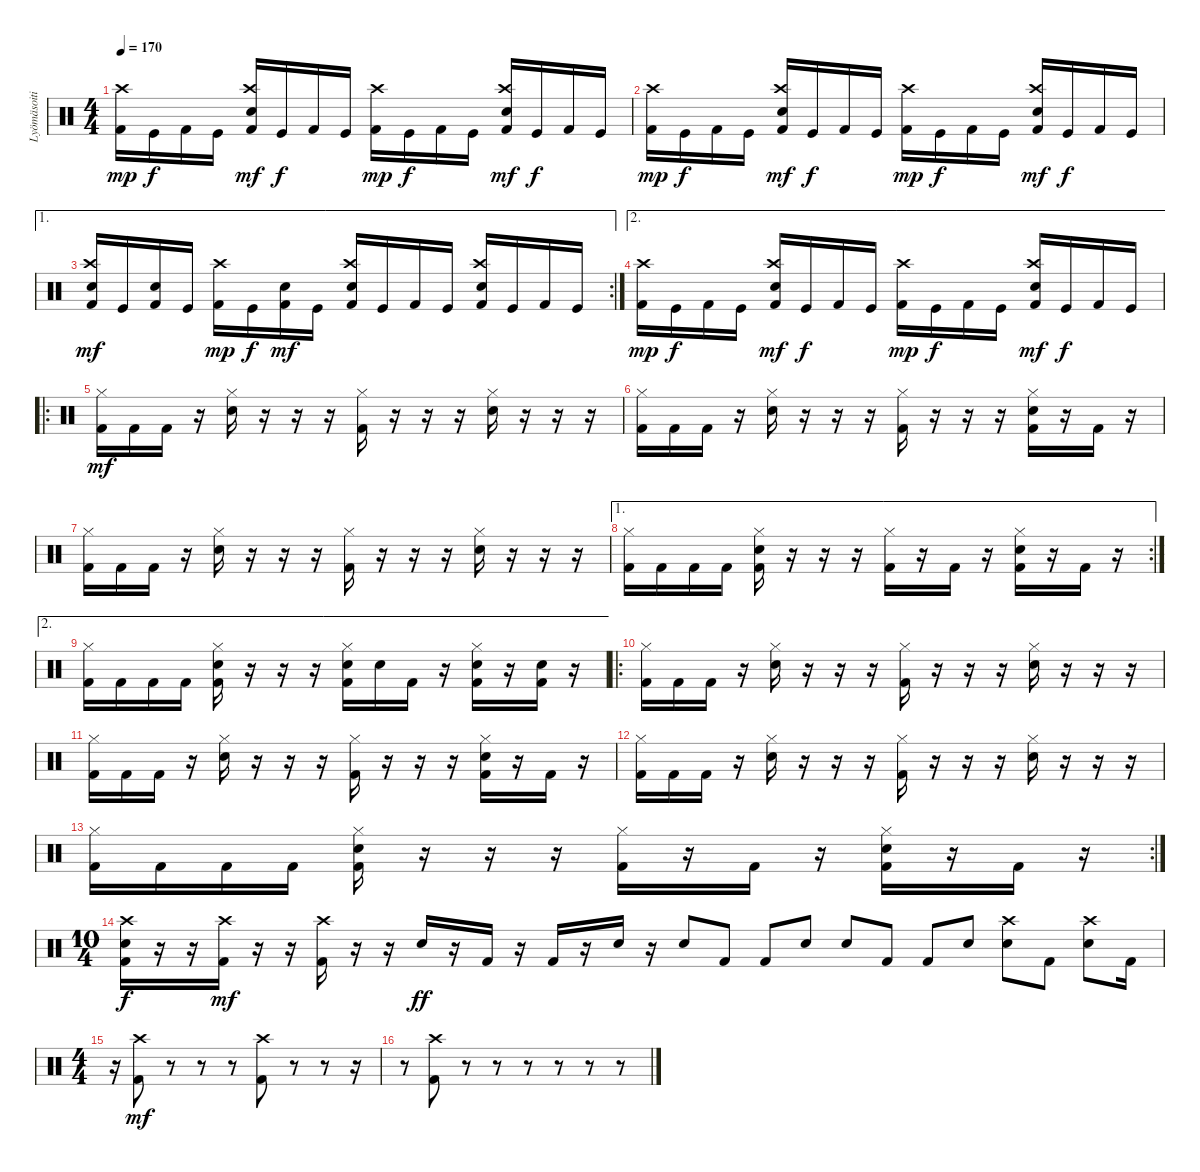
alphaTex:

\track ("Lyömäsoitin" "Lyömäsoiti") {instrument percussion}
\staff {score}
\articulation defaults
\ts (4 4)
\tempo 170
\clef neutral
\ks c
("Kick (hit) 2" "Crash high (hit)").16{dy mp} "Kick (hit)".16{dy f} "Kick (hit) 2".16 "Kick (hit)".16 ("Kick (hit) 2" "Crash high (hit)" "Snare (hit) 2").16{dy mf} "Kick (hit)".16{dy f} "Kick (hit) 2".16 "Kick (hit)".16 ("Kick (hit) 2" "Crash high (hit)").16{dy mp} "Kick (hit)".16{dy f} "Kick (hit) 2".16 "Kick (hit)".16 ("Kick (hit) 2" "Crash high (hit)" "Snare (hit) 2").16{dy mf} "Kick (hit)".16{dy f} "Kick (hit) 2".16 "Kick (hit)".16 |
("Kick (hit) 2" "Crash high (hit)").16{dy mp} "Kick (hit)".16{dy f} "Kick (hit) 2".16 "Kick (hit)".16 ("Kick (hit) 2" "Crash high (hit)" "Snare (hit) 2").16{dy mf} "Kick (hit)".16{dy f} "Kick (hit) 2".16 "Kick (hit)".16 ("Kick (hit) 2" "Crash high (hit)").16{dy mp} "Kick (hit)".16{dy f} "Kick (hit) 2".16 "Kick (hit)".16 ("Kick (hit) 2" "Crash high (hit)" "Snare (hit) 2").16{dy mf} "Kick (hit)".16{dy f} "Kick (hit) 2".16 "Kick (hit)".16 |
\ae 1
\rc 2
("Kick (hit) 2" "Crash high (hit)" "Electric Snare (hit)").16{dy mf} "Kick (hit)".16 ("Kick (hit) 2" "Electric Snare (hit)").16 "Kick (hit)".16 ("Kick (hit) 2" "Crash high (hit)").16{dy mp} "Kick (hit)".16{dy f} ("Kick (hit) 2" "Electric Snare (hit)").16{dy mf} "Kick (hit)".16 ("Kick (hit) 2" "Crash high (hit)" "Electric Snare (hit)").16 "Kick (hit)".16 "Kick (hit) 2".16 "Kick (hit)".16 ("Kick (hit) 2" "Crash high (hit)" "Electric Snare (hit)").16 "Kick (hit)".16 "Kick (hit) 2".16 "Kick (hit)".16 |
\ae 2
("Kick (hit) 2" "Crash high (hit)").16{dy mp} "Kick (hit)".16{dy f} "Kick (hit) 2".16 "Kick (hit)".16 ("Kick (hit) 2" "Crash high (hit)" "Snare (hit) 2").16{dy mf} "Kick (hit)".16{dy f} "Kick (hit) 2".16 "Kick (hit)".16 ("Kick (hit) 2" "Crash high (hit)").16{dy mp} "Kick (hit)".16{dy f} "Kick (hit) 2".16 "Kick (hit)".16 ("Kick (hit) 2" "Crash high (hit)" "Snare (hit) 2").16{dy mf} "Kick (hit)".16{dy f} "Kick (hit) 2".16 "Kick (hit)".16 |
\ro
("Kick (hit) 2" "Hi-Hat (closed)").16{dy mf} "Kick (hit) 2".16 "Kick (hit) 2".16 r.16 ("Hi-Hat (closed)" "Electric Snare (hit)").16 r.16 r.16 r.16 ("Kick (hit) 2" "Hi-Hat (closed)").16 r.16 r.16 r.16 ("Hi-Hat (closed)" "Electric Snare (hit)").16 r.16 r.16 r.16 |
("Kick (hit) 2" "Hi-Hat (closed)").16 "Kick (hit) 2".16 "Kick (hit) 2".16 r.16 ("Hi-Hat (closed)" "Electric Snare (hit)").16 r.16 r.16 r.16 ("Kick (hit) 2" "Hi-Hat (closed)").16 r.16 r.16 r.16 ("Kick (hit) 2" "Hi-Hat (closed)" "Electric Snare (hit)").16 r.16 "Kick (hit) 2".16 r.16 |
("Kick (hit) 2" "Hi-Hat (closed)").16 "Kick (hit) 2".16 "Kick (hit) 2".16 r.16 ("Hi-Hat (closed)" "Electric Snare (hit)").16 r.16 r.16 r.16 ("Kick (hit) 2" "Hi-Hat (closed)").16 r.16 r.16 r.16 ("Hi-Hat (closed)" "Electric Snare (hit)").16 r.16 r.16 r.16 |
\ae 1
\rc 2
("Kick (hit) 2" "Hi-Hat (closed)").16 "Kick (hit) 2".16 "Kick (hit) 2".16 "Kick (hit) 2".16 ("Kick (hit) 2" "Hi-Hat (closed)" "Electric Snare (hit)").16 r.16 r.16 r.16 ("Kick (hit) 2" "Hi-Hat (closed)").16 r.16 "Kick (hit) 2".16 r.16 ("Kick (hit) 2" "Hi-Hat (closed)" "Electric Snare (hit)").16 r.16 "Kick (hit) 2".16 r.16 |
\ae 2
("Kick (hit) 2" "Hi-Hat (closed)").16 "Kick (hit) 2".16 "Kick (hit) 2".16 "Kick (hit) 2".16 ("Kick (hit) 2" "Hi-Hat (closed)" "Electric Snare (hit)").16 r.16 r.16 r.16 ("Kick (hit) 2" "Hi-Hat (closed)" "Electric Snare (hit)").16 "Electric Snare (hit)".16 "Kick (hit) 2".16 r.16 ("Kick (hit) 2" "Hi-Hat (closed)" "Electric Snare (hit)").16 r.16 ("Kick (hit) 2" "Electric Snare (hit)").16 r.16 |
\ro
("Kick (hit) 2" "Hi-Hat (closed)").16 "Kick (hit) 2".16 "Kick (hit) 2".16 r.16 ("Hi-Hat (closed)" "Electric Snare (hit)").16 r.16 r.16 r.16 ("Kick (hit) 2" "Hi-Hat (closed)").16 r.16 r.16 r.16 ("Hi-Hat (closed)" "Electric Snare (hit)").16 r.16 r.16 r.16 |
("Kick (hit) 2" "Hi-Hat (closed)").16 "Kick (hit) 2".16 "Kick (hit) 2".16 r.16 ("Hi-Hat (closed)" "Electric Snare (hit)").16 r.16 r.16 r.16 ("Kick (hit) 2" "Hi-Hat (closed)").16 r.16 r.16 r.16 ("Kick (hit) 2" "Hi-Hat (closed)" "Electric Snare (hit)").16 r.16 "Kick (hit) 2".16 r.16 |
("Kick (hit) 2" "Hi-Hat (closed)").16 "Kick (hit) 2".16 "Kick (hit) 2".16 r.16 ("Hi-Hat (closed)" "Electric Snare (hit)").16 r.16 r.16 r.16 ("Kick (hit) 2" "Hi-Hat (closed)").16 r.16 r.16 r.16 ("Hi-Hat (closed)" "Electric Snare (hit)").16 r.16 r.16 r.16 |
\rc 2
("Kick (hit) 2" "Hi-Hat (closed)").16 "Kick (hit) 2".16 "Kick (hit) 2".16 "Kick (hit) 2".16 ("Kick (hit) 2" "Hi-Hat (closed)" "Electric Snare (hit)").16 r.16 r.16 r.16 ("Kick (hit) 2" "Hi-Hat (closed)").16 r.16 "Kick (hit) 2".16 r.16 ("Kick (hit) 2" "Hi-Hat (closed)" "Electric Snare (hit)").16 r.16 "Kick (hit) 2".16 r.16 |
\ts (10 4)
("Kick (hit) 2" "Electric Snare (hit)" "Crash high (hit)").16{dy f} r.16 r.16 ("Kick (hit) 2" "Crash high (hit)").16{dy mf} r.16 r.16 ("Kick (hit) 2" "Crash high (hit)").16 r.16 r.16 "Electric Snare (hit)".16{dy ff} r.16 "Kick (hit) 2".16 r.16 "Kick (hit) 2".16 r.16 "Electric Snare (hit)".16 r.16 "Electric Snare (hit)".8 "Kick (hit) 2".8 "Kick (hit) 2".8 "Electric Snare (hit)".8 "Electric Snare (hit)".8 "Kick (hit) 2".8 "Kick (hit) 2".8 "Electric Snare (hit)".8 ("Electric Snare (hit)" "Crash high (hit)").8 "Kick (hit) 2".8 ("Electric Snare (hit)" "Crash high (hit)").8 "Kick (hit) 2".16 |
\ts (4 4)
r.16 ("Kick (hit) 2" "Crash high (hit)").8{dy mf} r.8 r.8 r.8 ("Kick (hit) 2" "Crash high (hit)").8 r.8 r.8 r.16 |
r.8 ("Kick (hit) 2" "Crash high (hit)").8 r.8 r.8 r.8 r.8 r.8 r.8
